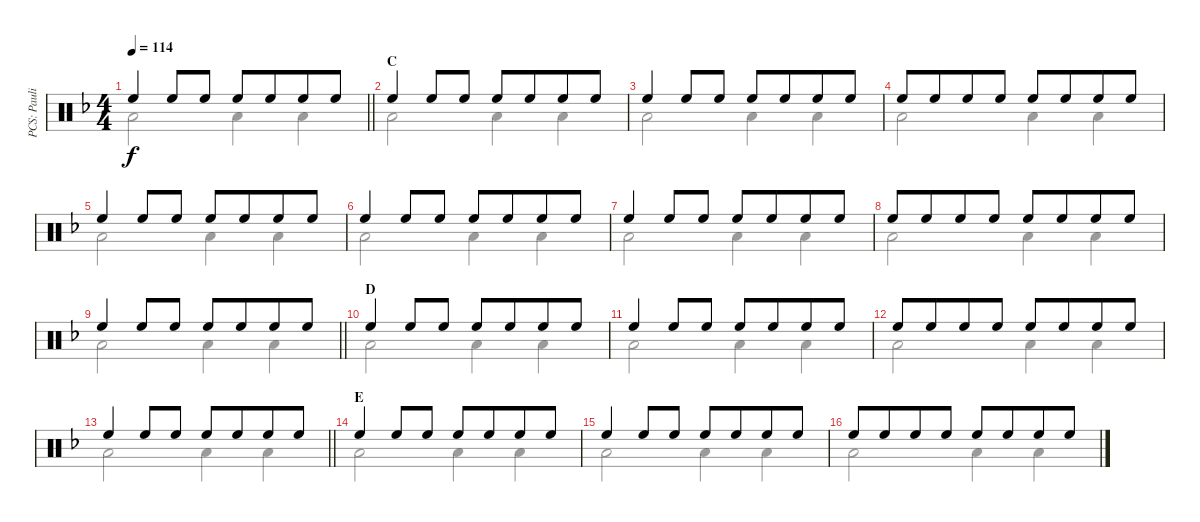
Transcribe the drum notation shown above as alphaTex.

\track ("PCS: Paulinho da Costa" "PCS: Pauli") {instrument percussion}
\staff {score}
\articulation defaults
\voice
\ts (4 4)
\tempo 114
\clef neutral
\barLineRight lightlight
\ks f "High Floor Tom (hit)".4{dy f} "High Floor Tom (hit)".8 "High Floor Tom (hit)".8 "High Floor Tom (hit)".8 "High Floor Tom (hit)".8{beam merge} "High Floor Tom (hit)".8 "High Floor Tom (hit)".8
|
\section ("" "C")
"High Floor Tom (hit)".4 "High Floor Tom (hit)".8 "High Floor Tom (hit)".8 "High Floor Tom (hit)".8 "High Floor Tom (hit)".8{beam merge} "High Floor Tom (hit)".8 "High Floor Tom (hit)".8 |
"High Floor Tom (hit)".4 "High Floor Tom (hit)".8 "High Floor Tom (hit)".8 "High Floor Tom (hit)".8 "High Floor Tom (hit)".8{beam merge} "High Floor Tom (hit)".8 "High Floor Tom (hit)".8 |
"High Floor Tom (hit)".8 "High Floor Tom (hit)".8{beam merge} "High Floor Tom (hit)".8 "High Floor Tom (hit)".8 "High Floor Tom (hit)".8{beam merge} "High Floor Tom (hit)".8{beam merge} "High Floor Tom (hit)".8 "High Floor Tom (hit)".8 |
"High Floor Tom (hit)".4 "High Floor Tom (hit)".8 "High Floor Tom (hit)".8 "High Floor Tom (hit)".8 "High Floor Tom (hit)".8{beam merge} "High Floor Tom (hit)".8 "High Floor Tom (hit)".8 |
"High Floor Tom (hit)".4 "High Floor Tom (hit)".8 "High Floor Tom (hit)".8 "High Floor Tom (hit)".8 "High Floor Tom (hit)".8{beam merge} "High Floor Tom (hit)".8 "High Floor Tom (hit)".8 |
"High Floor Tom (hit)".4 "High Floor Tom (hit)".8 "High Floor Tom (hit)".8 "High Floor Tom (hit)".8 "High Floor Tom (hit)".8{beam merge} "High Floor Tom (hit)".8 "High Floor Tom (hit)".8 |
"High Floor Tom (hit)".8 "High Floor Tom (hit)".8{beam merge} "High Floor Tom (hit)".8 "High Floor Tom (hit)".8 "High Floor Tom (hit)".8{beam merge} "High Floor Tom (hit)".8{beam merge} "High Floor Tom (hit)".8 "High Floor Tom (hit)".8 |
\barLineRight lightlight "High Floor Tom (hit)".4 "High Floor Tom (hit)".8 "High Floor Tom (hit)".8 "High Floor Tom (hit)".8 "High Floor Tom (hit)".8{beam merge} "High Floor Tom (hit)".8 "High Floor Tom (hit)".8
|
\section ("" "D")
"High Floor Tom (hit)".4 "High Floor Tom (hit)".8 "High Floor Tom (hit)".8 "High Floor Tom (hit)".8 "High Floor Tom (hit)".8{beam merge} "High Floor Tom (hit)".8 "High Floor Tom (hit)".8 |
"High Floor Tom (hit)".4 "High Floor Tom (hit)".8 "High Floor Tom (hit)".8 "High Floor Tom (hit)".8 "High Floor Tom (hit)".8{beam merge} "High Floor Tom (hit)".8 "High Floor Tom (hit)".8 |
"High Floor Tom (hit)".8 "High Floor Tom (hit)".8{beam merge} "High Floor Tom (hit)".8 "High Floor Tom (hit)".8 "High Floor Tom (hit)".8{beam merge} "High Floor Tom (hit)".8{beam merge} "High Floor Tom (hit)".8 "High Floor Tom (hit)".8 |
\barLineRight lightlight "High Floor Tom (hit)".4 "High Floor Tom (hit)".8 "High Floor Tom (hit)".8 "High Floor Tom (hit)".8 "High Floor Tom (hit)".8{beam merge} "High Floor Tom (hit)".8 "High Floor Tom (hit)".8
|
\section ("" "E")
"High Floor Tom (hit)".4 "High Floor Tom (hit)".8 "High Floor Tom (hit)".8 "High Floor Tom (hit)".8 "High Floor Tom (hit)".8{beam merge} "High Floor Tom (hit)".8 "High Floor Tom (hit)".8 |
"High Floor Tom (hit)".4 "High Floor Tom (hit)".8 "High Floor Tom (hit)".8 "High Floor Tom (hit)".8 "High Floor Tom (hit)".8{beam merge} "High Floor Tom (hit)".8 "High Floor Tom (hit)".8 |
"High Floor Tom (hit)".8 "High Floor Tom (hit)".8{beam merge} "High Floor Tom (hit)".8 "High Floor Tom (hit)".8 "High Floor Tom (hit)".8{beam merge} "High Floor Tom (hit)".8{beam merge} "High Floor Tom (hit)".8 "High Floor Tom (hit)".8
\voice
\clef neutral
\ottava regular
\simile none
\barLineRight lightlight
\ks f "Low Floor Tom (hit)".2{dy f} "Low Floor Tom (hit)".4 "Low Floor Tom (hit)".4
|
"Low Floor Tom (hit)".2 "Low Floor Tom (hit)".4 "Low Floor Tom (hit)".4 |
"Low Floor Tom (hit)".2 "Low Floor Tom (hit)".4 "Low Floor Tom (hit)".4 |
"Low Floor Tom (hit)".2 "Low Floor Tom (hit)".4 "Low Floor Tom (hit)".4 |
"Low Floor Tom (hit)".2 "Low Floor Tom (hit)".4 "Low Floor Tom (hit)".4 |
"Low Floor Tom (hit)".2 "Low Floor Tom (hit)".4 "Low Floor Tom (hit)".4 |
"Low Floor Tom (hit)".2 "Low Floor Tom (hit)".4 "Low Floor Tom (hit)".4 |
"Low Floor Tom (hit)".2 "Low Floor Tom (hit)".4 "Low Floor Tom (hit)".4 |
\barLineRight lightlight "Low Floor Tom (hit)".2 "Low Floor Tom (hit)".4 "Low Floor Tom (hit)".4
|
"Low Floor Tom (hit)".2 "Low Floor Tom (hit)".4 "Low Floor Tom (hit)".4 |
"Low Floor Tom (hit)".2 "Low Floor Tom (hit)".4 "Low Floor Tom (hit)".4 |
"Low Floor Tom (hit)".2 "Low Floor Tom (hit)".4 "Low Floor Tom (hit)".4 |
\barLineRight lightlight "Low Floor Tom (hit)".2 "Low Floor Tom (hit)".4 "Low Floor Tom (hit)".4
|
"Low Floor Tom (hit)".2 "Low Floor Tom (hit)".4 "Low Floor Tom (hit)".4 |
"Low Floor Tom (hit)".2 "Low Floor Tom (hit)".4 "Low Floor Tom (hit)".4 |
"Low Floor Tom (hit)".2 "Low Floor Tom (hit)".4 "Low Floor Tom (hit)".4
